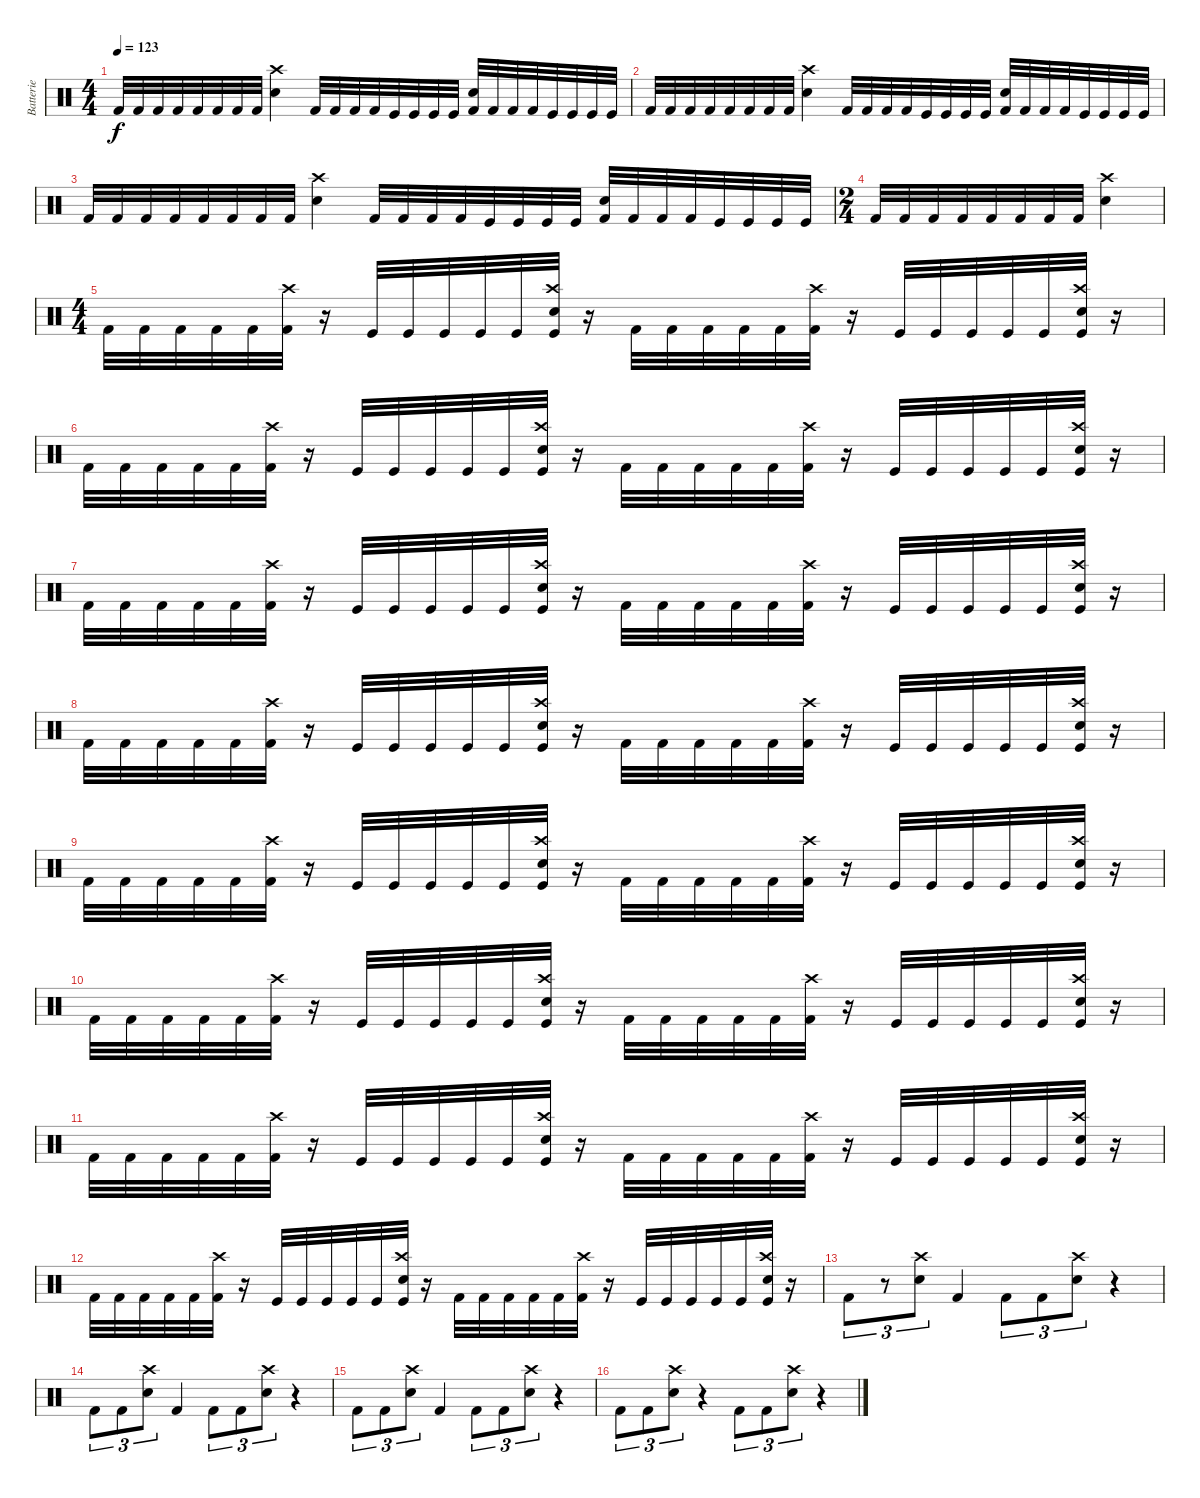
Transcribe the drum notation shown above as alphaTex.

\track ("Batterie" "Batterie") {instrument percussion}
\staff {score}
\articulation defaults
\ts (4 4)
\tempo 123
\clef neutral
\ks c "Kick (hit) 2".32{dy f} "Kick (hit) 2".32 "Kick (hit) 2".32 "Kick (hit) 2".32 "Kick (hit) 2".32 "Kick (hit) 2".32 "Kick (hit) 2".32 "Kick (hit) 2".32
("Snare (hit) 2" "Crash high (hit)").4 "Kick (hit) 2".32 "Kick (hit) 2".32 "Kick (hit) 2".32 "Kick (hit) 2".32 "Kick (hit)".32 "Kick (hit)".32 "Kick (hit)".32 "Kick (hit)".32 ("Kick (hit) 2" "Snare (hit) 2").32 "Kick (hit) 2".32 "Kick (hit) 2".32 "Kick (hit) 2".32 "Kick (hit)".32 "Kick (hit)".32 "Kick (hit)".32 "Kick (hit)".32 |
"Kick (hit) 2".32 "Kick (hit) 2".32 "Kick (hit) 2".32 "Kick (hit) 2".32 "Kick (hit) 2".32 "Kick (hit) 2".32 "Kick (hit) 2".32 "Kick (hit) 2".32 ("Snare (hit) 2" "Crash high (hit)").4 "Kick (hit) 2".32 "Kick (hit) 2".32 "Kick (hit) 2".32 "Kick (hit) 2".32 "Kick (hit)".32 "Kick (hit)".32 "Kick (hit)".32 "Kick (hit)".32 ("Kick (hit) 2" "Snare (hit) 2").32 "Kick (hit) 2".32 "Kick (hit) 2".32 "Kick (hit) 2".32 "Kick (hit)".32 "Kick (hit)".32 "Kick (hit)".32 "Kick (hit)".32 |
"Kick (hit) 2".32 "Kick (hit) 2".32 "Kick (hit) 2".32 "Kick (hit) 2".32 "Kick (hit) 2".32 "Kick (hit) 2".32 "Kick (hit) 2".32 "Kick (hit) 2".32 ("Snare (hit) 2" "Crash high (hit)").4 "Kick (hit) 2".32 "Kick (hit) 2".32 "Kick (hit) 2".32 "Kick (hit) 2".32 "Kick (hit)".32 "Kick (hit)".32 "Kick (hit)".32 "Kick (hit)".32 ("Kick (hit) 2" "Snare (hit) 2").32 "Kick (hit) 2".32 "Kick (hit) 2".32 "Kick (hit) 2".32 "Kick (hit)".32 "Kick (hit)".32 "Kick (hit)".32 "Kick (hit)".32 |
\ts (2 4)
"Kick (hit) 2".32 "Kick (hit) 2".32 "Kick (hit) 2".32 "Kick (hit) 2".32 "Kick (hit) 2".32 "Kick (hit) 2".32 "Kick (hit) 2".32 "Kick (hit) 2".32 ("Snare (hit) 2" "Crash high (hit)").4 |
\ts (4 4)
\section ("" "")
"Kick (hit) 2".32 "Kick (hit) 2".32 "Kick (hit) 2".32 "Kick (hit) 2".32 "Kick (hit) 2".32 ("Kick (hit) 2" "Crash high (hit)").32 r.16 "Kick (hit)".32 "Kick (hit)".32 "Kick (hit)".32 "Kick (hit)".32 "Kick (hit)".32 ("Kick (hit)" "Snare (hit) 2" "Crash high (hit)").32 r.16 "Kick (hit) 2".32 "Kick (hit) 2".32 "Kick (hit) 2".32 "Kick (hit) 2".32 "Kick (hit) 2".32 ("Kick (hit) 2" "Crash high (hit)").32 r.16 "Kick (hit)".32 "Kick (hit)".32 "Kick (hit)".32 "Kick (hit)".32 "Kick (hit)".32 ("Kick (hit)" "Snare (hit) 2" "Crash high (hit)").32 r.16 |
"Kick (hit) 2".32 "Kick (hit) 2".32 "Kick (hit) 2".32 "Kick (hit) 2".32 "Kick (hit) 2".32 ("Kick (hit) 2" "Crash high (hit)").32 r.16 "Kick (hit)".32 "Kick (hit)".32 "Kick (hit)".32 "Kick (hit)".32 "Kick (hit)".32 ("Kick (hit)" "Snare (hit) 2" "Crash high (hit)").32 r.16 "Kick (hit) 2".32 "Kick (hit) 2".32 "Kick (hit) 2".32 "Kick (hit) 2".32 "Kick (hit) 2".32 ("Kick (hit) 2" "Crash high (hit)").32 r.16 "Kick (hit)".32 "Kick (hit)".32 "Kick (hit)".32 "Kick (hit)".32 "Kick (hit)".32 ("Kick (hit)" "Snare (hit) 2" "Crash high (hit)").32 r.16 |
"Kick (hit) 2".32 "Kick (hit) 2".32 "Kick (hit) 2".32 "Kick (hit) 2".32 "Kick (hit) 2".32 ("Kick (hit) 2" "Crash high (hit)").32 r.16 "Kick (hit)".32 "Kick (hit)".32 "Kick (hit)".32 "Kick (hit)".32 "Kick (hit)".32 ("Kick (hit)" "Snare (hit) 2" "Crash high (hit)").32 r.16 "Kick (hit) 2".32 "Kick (hit) 2".32 "Kick (hit) 2".32 "Kick (hit) 2".32 "Kick (hit) 2".32 ("Kick (hit) 2" "Crash high (hit)").32 r.16 "Kick (hit)".32 "Kick (hit)".32 "Kick (hit)".32 "Kick (hit)".32 "Kick (hit)".32 ("Kick (hit)" "Snare (hit) 2" "Crash high (hit)").32 r.16 |
"Kick (hit) 2".32 "Kick (hit) 2".32 "Kick (hit) 2".32 "Kick (hit) 2".32 "Kick (hit) 2".32 ("Kick (hit) 2" "Crash high (hit)").32 r.16 "Kick (hit)".32 "Kick (hit)".32 "Kick (hit)".32 "Kick (hit)".32 "Kick (hit)".32 ("Kick (hit)" "Snare (hit) 2" "Crash high (hit)").32 r.16 "Kick (hit) 2".32 "Kick (hit) 2".32 "Kick (hit) 2".32 "Kick (hit) 2".32 "Kick (hit) 2".32 ("Kick (hit) 2" "Crash high (hit)").32 r.16 "Kick (hit)".32 "Kick (hit)".32 "Kick (hit)".32 "Kick (hit)".32 "Kick (hit)".32 ("Kick (hit)" "Snare (hit) 2" "Crash high (hit)").32 r.16 |
"Kick (hit) 2".32 "Kick (hit) 2".32 "Kick (hit) 2".32 "Kick (hit) 2".32 "Kick (hit) 2".32 ("Kick (hit) 2" "Crash high (hit)").32 r.16 "Kick (hit)".32 "Kick (hit)".32 "Kick (hit)".32 "Kick (hit)".32 "Kick (hit)".32 ("Kick (hit)" "Snare (hit) 2" "Crash high (hit)").32 r.16 "Kick (hit) 2".32 "Kick (hit) 2".32 "Kick (hit) 2".32 "Kick (hit) 2".32 "Kick (hit) 2".32 ("Kick (hit) 2" "Crash high (hit)").32 r.16 "Kick (hit)".32 "Kick (hit)".32 "Kick (hit)".32 "Kick (hit)".32 "Kick (hit)".32 ("Kick (hit)" "Snare (hit) 2" "Crash high (hit)").32 r.16 |
"Kick (hit) 2".32 "Kick (hit) 2".32 "Kick (hit) 2".32 "Kick (hit) 2".32 "Kick (hit) 2".32 ("Kick (hit) 2" "Crash high (hit)").32 r.16 "Kick (hit)".32 "Kick (hit)".32 "Kick (hit)".32 "Kick (hit)".32 "Kick (hit)".32 ("Kick (hit)" "Snare (hit) 2" "Crash high (hit)").32 r.16 "Kick (hit) 2".32 "Kick (hit) 2".32 "Kick (hit) 2".32 "Kick (hit) 2".32 "Kick (hit) 2".32 ("Kick (hit) 2" "Crash high (hit)").32 r.16 "Kick (hit)".32 "Kick (hit)".32 "Kick (hit)".32 "Kick (hit)".32 "Kick (hit)".32 ("Kick (hit)" "Snare (hit) 2" "Crash high (hit)").32 r.16 |
"Kick (hit) 2".32 "Kick (hit) 2".32 "Kick (hit) 2".32 "Kick (hit) 2".32 "Kick (hit) 2".32 ("Kick (hit) 2" "Crash high (hit)").32 r.16 "Kick (hit)".32 "Kick (hit)".32 "Kick (hit)".32 "Kick (hit)".32 "Kick (hit)".32 ("Kick (hit)" "Snare (hit) 2" "Crash high (hit)").32 r.16 "Kick (hit) 2".32 "Kick (hit) 2".32 "Kick (hit) 2".32 "Kick (hit) 2".32 "Kick (hit) 2".32 ("Kick (hit) 2" "Crash high (hit)").32 r.16 "Kick (hit)".32 "Kick (hit)".32 "Kick (hit)".32 "Kick (hit)".32 "Kick (hit)".32 ("Kick (hit)" "Snare (hit) 2" "Crash high (hit)").32 r.16 |
"Kick (hit) 2".32 "Kick (hit) 2".32 "Kick (hit) 2".32 "Kick (hit) 2".32 "Kick (hit) 2".32 ("Kick (hit) 2" "Crash high (hit)").32 r.16 "Kick (hit)".32 "Kick (hit)".32 "Kick (hit)".32 "Kick (hit)".32 "Kick (hit)".32 ("Kick (hit)" "Snare (hit) 2" "Crash high (hit)").32 r.16 "Kick (hit) 2".32 "Kick (hit) 2".32 "Kick (hit) 2".32 "Kick (hit) 2".32 "Kick (hit) 2".32 ("Kick (hit) 2" "Crash high (hit)").32 r.16 "Kick (hit)".32 "Kick (hit)".32 "Kick (hit)".32 "Kick (hit)".32 "Kick (hit)".32 ("Kick (hit)" "Snare (hit) 2" "Crash high (hit)").32 r.16 |
\section ("" "")
"Kick (hit) 2".8{tu (3 2)} r.8{tu (3 2)} ("Snare (hit) 2" "Crash high (hit)").8{tu (3 2)} "Kick (hit) 2".4 "Kick (hit) 2".8{tu (3 2)} "Kick (hit) 2".8{tu (3 2)} ("Snare (hit) 2" "Crash high (hit)").8{tu (3 2)} r.4 |
"Kick (hit) 2".8{tu (3 2)} "Kick (hit) 2".8{tu (3 2)} ("Snare (hit) 2" "Crash high (hit)").8{tu (3 2)} "Kick (hit) 2".4 "Kick (hit) 2".8{tu (3 2)} "Kick (hit) 2".8{tu (3 2)} ("Snare (hit) 2" "Crash high (hit)").8{tu (3 2)} r.4 |
"Kick (hit) 2".8{tu (3 2)} "Kick (hit) 2".8{tu (3 2)} ("Snare (hit) 2" "Crash high (hit)").8{tu (3 2)} "Kick (hit) 2".4 "Kick (hit) 2".8{tu (3 2)} "Kick (hit) 2".8{tu (3 2)} ("Snare (hit) 2" "Crash high (hit)").8{tu (3 2)} r.4 |
"Kick (hit) 2".8{tu (3 2)} "Kick (hit) 2".8{tu (3 2)} ("Snare (hit) 2" "Crash high (hit)").8{tu (3 2)} r.4 "Kick (hit) 2".8{tu (3 2)} "Kick (hit) 2".8{tu (3 2)} ("Snare (hit) 2" "Crash high (hit)").8{tu (3 2)} r.4
